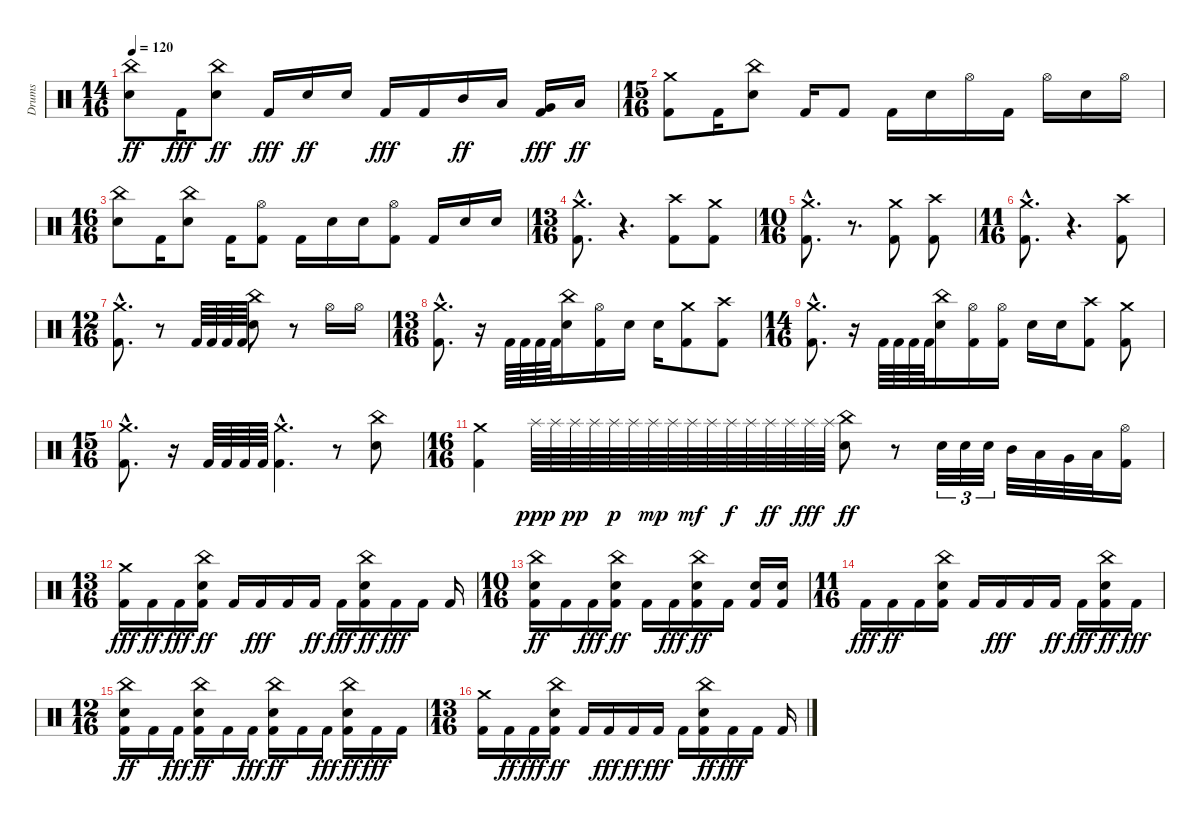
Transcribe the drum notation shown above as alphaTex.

\track ("Drums" "Drums") {instrument percussion}
\staff {score}
\articulation defaults
\ts (14 16)
\tempo 120
\clef neutral
\ks c
("China (hit)" "Snare (hit) 2").8{dy ff} "Kick (hit) 2".16{dy fff} ("China (hit)" "Snare (hit) 2").8{dy ff} "Kick (hit) 2".16{dy fff} "Snare (hit) 2".16{dy ff} "Snare (hit) 2".16 "Kick (hit) 2".16{dy fff} "Kick (hit) 2".16 "Mid Tom (hit)".16{dy ff} "Low Tom (hit)".16 ("Very Low Tom (hit)" "Kick (hit) 2").16{dy fff} "Low Floor Tom (hit)".16{dy ff} |
\ts (15 16)
("Crash medium (hit)" "Kick (hit) 2").8 "Kick (hit) 2".16 ("China (hit)" "Snare (hit) 2").8 "Kick (hit) 2".16 "Kick (hit) 2".8 "Kick (hit) 2".16 "Snare (hit) 2".16 "Hi-Hat (open)".16 "Kick (hit) 2".16 "Hi-Hat (open)".16 "Snare (hit) 2".16 "Hi-Hat (open)".16 |
\ts (16 16)
("China (hit)" "Snare (hit) 2").8 "Kick (hit) 2".16 ("China (hit)" "Snare (hit) 2").8 "Kick (hit) 2".16 ("Hi-Hat (open)" "Kick (hit) 2").8 "Kick (hit) 2".16 "Snare (hit) 2".16 "Snare (hit) 2".16 ("Hi-Hat (open)" "Kick (hit) 2").8 "Kick (hit) 2".16 "Snare (hit) 2".16 "Snare (hit) 2".16 |
\ts (13 16)
("Crash medium (hit)"{hac} "Kick (hit) 2"{hac}).8{d} r.4{d} ("Crash high (hit)" "Kick (hit) 2").8 ("Crash medium (hit)" "Kick (hit) 2").8 |
\ts (10 16)
("Crash medium (hit)"{hac} "Kick (hit) 2"{hac}).8{d} r.8{d} ("Crash medium (hit)" "Kick (hit) 2").8 ("Crash high (hit)" "Kick (hit) 2").8 |
\ts (11 16)
("Crash medium (hit)"{hac} "Kick (hit) 2"{hac}).8{d} r.4{d} ("Crash high (hit)" "Kick (hit) 2").8 |
\ts (12 16)
("Crash medium (hit)"{hac} "Kick (hit) 2"{hac}).8{d} r.8 "Kick (hit) 2".64 "Kick (hit) 2".64 "Kick (hit) 2".64 "Kick (hit) 2".64 ("China (hit)" "Snare (hit) 2").8 r.8 "Hi-Hat (open)".16 "Hi-Hat (open)".16 |
\ts (13 16)
("Crash medium (hit)"{hac} "Kick (hit) 2"{hac}).8{d} r.16 "Kick (hit) 2".64 "Kick (hit) 2".64 "Kick (hit) 2".64 "Kick (hit) 2".64 ("China (hit)" "Snare (hit) 2").16 ("Hi-Hat (open)" "Kick (hit) 2").16 "Snare (hit) 2".16 "Snare (hit) 2".16 ("Crash medium (hit)" "Kick (hit) 2").8 ("Crash high (hit)" "Kick (hit) 2").8 |
\ts (14 16)
("Crash medium (hit)"{hac} "Kick (hit) 2"{hac}).8{d} r.16 "Kick (hit) 2".64 "Kick (hit) 2".64 "Kick (hit) 2".64 "Kick (hit) 2".64 ("China (hit)" "Snare (hit) 2").16 ("Hi-Hat (open)" "Kick (hit) 2").16 ("Hi-Hat (open)" "Kick (hit) 2").16 "Snare (hit) 2".16 "Snare (hit) 2".16 ("Crash high (hit)" "Kick (hit) 2").8 ("Crash medium (hit)" "Kick (hit) 2").8 |
\ts (15 16)
("Crash medium (hit)"{hac} "Kick (hit) 2"{hac}).8{d} r.16 "Kick (hit) 2".64 "Kick (hit) 2".64 "Kick (hit) 2".64 "Kick (hit) 2".64 ("Crash medium (hit)"{hac} "Kick (hit) 2"{hac}).4{d} r.8 ("China (hit)" "Snare (hit) 2").8 |
\ts (16 16)
("Crash medium (hit)" "Kick (hit) 2").4 "Splash (hit)".64{dy ppp} "Splash (hit)".64 "Splash (hit)".64{dy pp} "Splash (hit)".64 "Splash (hit)".64{dy p} "Splash (hit)".64 "Splash (hit)".64{dy mp} "Splash (hit)".64 "Splash (hit)".64{dy mf} "Splash (hit)".64 "Splash (hit)".64{dy f} "Splash (hit)".64 "Splash (hit)".64{dy ff} "Splash (hit)".64 "Splash (hit)".64{dy fff} "Splash (hit)".64 ("China (hit)" "Snare (hit) 2").8{dy ff} r.8 "Snare (hit) 2".32{tu (3 2)} "Snare (hit) 2".32{tu (3 2)} "Snare (hit) 2".32{tu (3 2)} "Mid Tom (hit)".32 "Low Tom (hit)".32 "Very Low Tom (hit)".32 "Low Floor Tom (hit)".32 ("Hi-Hat (open)" "Kick (hit) 2").16 |
\ts (13 16)
("Crash medium (hit)" "Kick (hit) 2").16{dy fff} "Kick (hit) 2".16{dy ff} "Kick (hit) 2".16{dy fff} ("China (hit)" "Snare (hit) 2" "Kick (hit) 2").16{dy ff} "Kick (hit) 2".16 "Kick (hit) 2".16{dy fff} "Kick (hit) 2".16 "Kick (hit) 2".16{dy ff} "Kick (hit) 2".16{dy fff} ("China (hit)" "Snare (hit) 2" "Kick (hit) 2").16{dy ff} "Kick (hit) 2".16{dy fff} "Kick (hit) 2".16 "Kick (hit) 2".16 |
\ts (10 16)
("China (hit)" "Snare (hit) 2" "Kick (hit) 2").16{dy ff} "Kick (hit) 2".16 "Kick (hit) 2".16{dy fff} ("China (hit)" "Snare (hit) 2" "Kick (hit) 2").16{dy ff} "Kick (hit) 2".16 "Kick (hit) 2".16{dy fff} ("China (hit)" "Snare (hit) 2" "Kick (hit) 2").16{dy ff} "Kick (hit) 2".16 ("Snare (hit) 2" "Kick (hit) 2").16 ("Snare (hit) 2" "Kick (hit) 2").16 |
\ts (11 16)
"Kick (hit) 2".16{dy fff} "Kick (hit) 2".16{dy ff} "Kick (hit) 2".16 ("China (hit)" "Snare (hit) 2" "Kick (hit) 2").16 "Kick (hit) 2".16 "Kick (hit) 2".16{dy fff} "Kick (hit) 2".16 "Kick (hit) 2".16{dy ff} "Kick (hit) 2".16{dy fff} ("China (hit)" "Snare (hit) 2" "Kick (hit) 2").16{dy ff} "Kick (hit) 2".16{dy fff} |
\ts (12 16)
("China (hit)" "Snare (hit) 2" "Kick (hit) 2").16{dy ff} "Kick (hit) 2".16 "Kick (hit) 2".16{dy fff} ("China (hit)" "Snare (hit) 2" "Kick (hit) 2").16{dy ff} "Kick (hit) 2".16 "Kick (hit) 2".16{dy fff} ("China (hit)" "Snare (hit) 2" "Kick (hit) 2").16{dy ff} "Kick (hit) 2".16 "Kick (hit) 2".16{dy fff} ("China (hit)" "Snare (hit) 2" "Kick (hit) 2").16{dy ff} "Kick (hit) 2".16{dy fff} "Kick (hit) 2".16 |
\ts (13 16)
("Crash medium (hit)" "Kick (hit) 2").16 "Kick (hit) 2".16{dy ff} "Kick (hit) 2".16{dy fff} ("China (hit)" "Snare (hit) 2" "Kick (hit) 2").16{dy ff} "Kick (hit) 2".16 "Kick (hit) 2".16{dy fff} "Kick (hit) 2".16{dy ff} "Kick (hit) 2".16{dy fff} "Kick (hit) 2".16 ("China (hit)" "Snare (hit) 2" "Kick (hit) 2").16{dy ff} "Kick (hit) 2".16{dy fff} "Kick (hit) 2".16 "Kick (hit) 2".16
